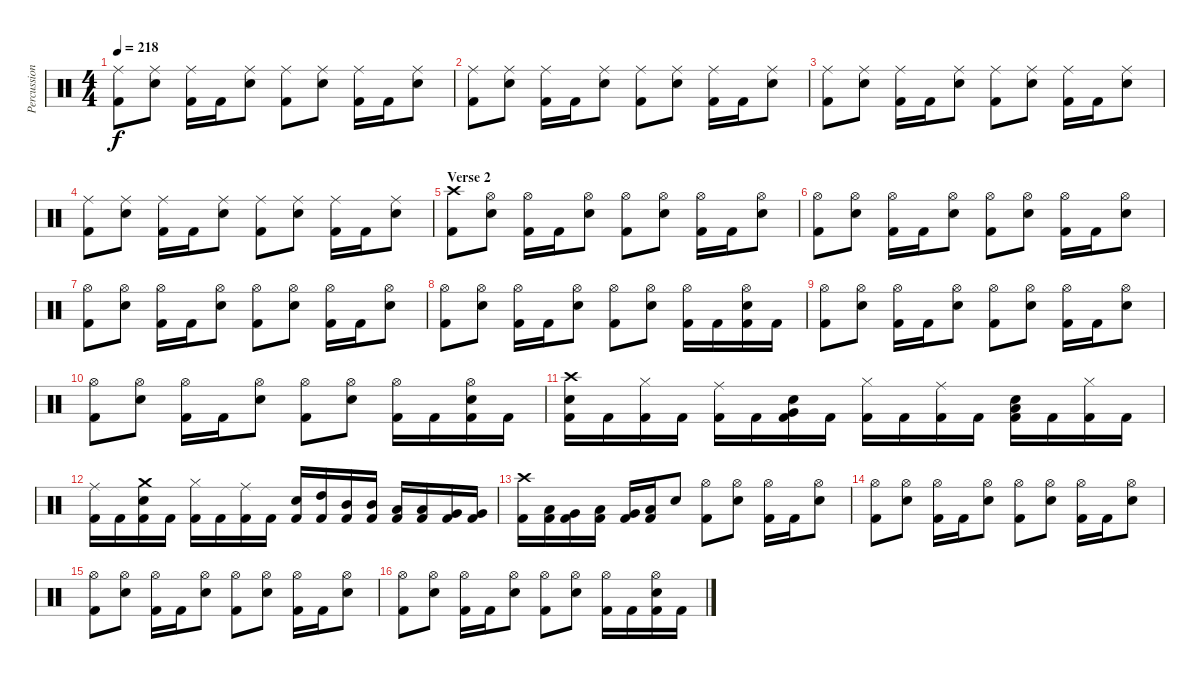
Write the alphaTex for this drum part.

\track ("Percussion" "Percussion") {instrument percussion}
\staff {score}
\articulation defaults
\ts (4 4)
\tempo 218
\clef neutral
\ks c
("Ride (middle)" "Kick (hit) 2").8{dy f} ("Ride (middle)" "Electric Snare (hit)").8 ("Ride (middle)" "Kick (hit) 2").16 "Kick (hit) 2".16 ("Ride (middle)" "Electric Snare (hit)").8 ("Ride (middle)" "Kick (hit) 2").8 ("Ride (middle)" "Electric Snare (hit)").8 ("Ride (middle)" "Kick (hit) 2").16 "Kick (hit) 2".16 ("Ride (middle)" "Electric Snare (hit)").8 |
("Ride (middle)" "Kick (hit) 2").8 ("Ride (middle)" "Electric Snare (hit)").8 ("Ride (middle)" "Kick (hit) 2").16 "Kick (hit) 2".16 ("Ride (middle)" "Electric Snare (hit)").8 ("Ride (middle)" "Kick (hit) 2").8 ("Ride (middle)" "Electric Snare (hit)").8 ("Ride (middle)" "Kick (hit) 2").16 "Kick (hit) 2".16 ("Ride (middle)" "Electric Snare (hit)").8 |
("Ride (middle)" "Kick (hit) 2").8 ("Ride (middle)" "Electric Snare (hit)").8 ("Ride (middle)" "Kick (hit) 2").16 "Kick (hit) 2".16 ("Ride (middle)" "Electric Snare (hit)").8 ("Ride (middle)" "Kick (hit) 2").8 ("Ride (middle)" "Electric Snare (hit)").8 ("Ride (middle)" "Kick (hit) 2").16 "Kick (hit) 2".16 ("Ride (middle)" "Electric Snare (hit)").8 |
("Ride (middle)" "Kick (hit) 2").8 ("Ride (middle)" "Electric Snare (hit)").8 ("Ride (middle)" "Kick (hit) 2").16 "Kick (hit) 2".16 ("Ride (middle)" "Electric Snare (hit)").8 ("Ride (middle)" "Kick (hit) 2").8 ("Ride (middle)" "Electric Snare (hit)").8 ("Ride (middle)" "Kick (hit) 2").16 "Kick (hit) 2".16 ("Ride (middle)" "Electric Snare (hit)").8 |
\section ("" "Verse 2")
("Crash high (hit)" "Kick (hit) 2").8 ("Hi-Hat (open)" "Electric Snare (hit)").8 ("Hi-Hat (open)" "Kick (hit) 2").16 "Kick (hit) 2".16 ("Hi-Hat (open)" "Electric Snare (hit)").8 ("Hi-Hat (open)" "Kick (hit) 2").8 ("Hi-Hat (open)" "Electric Snare (hit)").8 ("Hi-Hat (open)" "Kick (hit) 2").16 "Kick (hit) 2".16 ("Hi-Hat (open)" "Electric Snare (hit)").8 |
("Hi-Hat (open)" "Kick (hit) 2").8 ("Hi-Hat (open)" "Electric Snare (hit)").8 ("Hi-Hat (open)" "Kick (hit) 2").16 "Kick (hit) 2".16 ("Hi-Hat (open)" "Electric Snare (hit)").8 ("Hi-Hat (open)" "Kick (hit) 2").8 ("Hi-Hat (open)" "Electric Snare (hit)").8 ("Hi-Hat (open)" "Kick (hit) 2").16 "Kick (hit) 2".16 ("Hi-Hat (open)" "Electric Snare (hit)").8 |
("Hi-Hat (open)" "Kick (hit) 2").8 ("Hi-Hat (open)" "Electric Snare (hit)").8 ("Hi-Hat (open)" "Kick (hit) 2").16 "Kick (hit) 2".16 ("Hi-Hat (open)" "Electric Snare (hit)").8 ("Hi-Hat (open)" "Kick (hit) 2").8 ("Hi-Hat (open)" "Electric Snare (hit)").8 ("Hi-Hat (open)" "Kick (hit) 2").16 "Kick (hit) 2".16 ("Hi-Hat (open)" "Electric Snare (hit)").8 |
("Hi-Hat (open)" "Kick (hit) 2").8 ("Hi-Hat (open)" "Electric Snare (hit)").8 ("Hi-Hat (open)" "Kick (hit) 2").16 "Kick (hit) 2".16 ("Hi-Hat (open)" "Electric Snare (hit)").8 ("Hi-Hat (open)" "Kick (hit) 2").8 ("Hi-Hat (open)" "Electric Snare (hit)").8 ("Hi-Hat (open)" "Kick (hit) 2").16 "Kick (hit) 2".16 ("Hi-Hat (open)" "Electric Snare (hit)" "Kick (hit) 2").16 "Kick (hit) 2".16 |
("Hi-Hat (open)" "Kick (hit) 2").8 ("Hi-Hat (open)" "Electric Snare (hit)").8 ("Hi-Hat (open)" "Kick (hit) 2").16 "Kick (hit) 2".16 ("Hi-Hat (open)" "Electric Snare (hit)").8 ("Hi-Hat (open)" "Kick (hit) 2").8 ("Hi-Hat (open)" "Electric Snare (hit)").8 ("Hi-Hat (open)" "Kick (hit) 2").16 "Kick (hit) 2".16 ("Hi-Hat (open)" "Electric Snare (hit)").8 |
("Hi-Hat (open)" "Kick (hit) 2").8 ("Hi-Hat (open)" "Electric Snare (hit)").8 ("Hi-Hat (open)" "Kick (hit) 2").16 "Kick (hit) 2".16 ("Hi-Hat (open)" "Electric Snare (hit)").8 ("Hi-Hat (open)" "Kick (hit) 2").8 ("Hi-Hat (open)" "Electric Snare (hit)").8 ("Hi-Hat (open)" "Kick (hit) 2").16 "Kick (hit) 2".16 ("Hi-Hat (open)" "Electric Snare (hit)" "Kick (hit) 2").16 "Kick (hit) 2".16 |
("Crash high (hit)" "Electric Snare (hit)" "Kick (hit) 2").16 "Kick (hit) 2".16 ("Hi-Hat (closed)" "Kick (hit) 2").16 "Kick (hit) 2".16 ("Ride (middle)" "Kick (hit) 2").16 "Kick (hit) 2".16 ("Very Low Tom (hit)" "Electric Snare (hit)" "Kick (hit) 2").16 "Kick (hit) 2".16 ("Hi-Hat (closed)" "Kick (hit) 2").16 "Kick (hit) 2".16 ("Ride (middle)" "Kick (hit) 2").16 "Kick (hit) 2".16 ("Low Tom (hit)" "Electric Snare (hit)" "Kick (hit) 2").16 "Kick (hit) 2".16 ("Hi-Hat (closed)" "Kick (hit) 2").16 "Kick (hit) 2".16 |
("Ride (middle)" "Kick (hit) 2").16 "Kick (hit) 2".16 ("Crash medium (hit)" "Electric Snare (hit)" "Kick (hit) 2").16 "Kick (hit) 2".16 ("Hi-Hat (closed)" "Kick (hit) 2").16 "Kick (hit) 2".16 ("Ride (middle)" "Kick (hit) 2").16 "Kick (hit) 2".16 ("Electric Snare (hit)" "Kick (hit) 2").16 ("High Tom (hit)" "Kick (hit) 2").16 ("Mid Tom (hit)" "Kick (hit) 2").16 ("Mid Tom (hit)" "Kick (hit) 2").16 ("Low Tom (hit)" "Kick (hit) 2").16 ("Low Tom (hit)" "Kick (hit) 2").16 ("Very Low Tom (hit)" "Kick (hit) 2").16 ("Very Low Tom (hit)" "Kick (hit) 2").16 |
("Crash high (hit)" "Kick (hit) 2").16 ("Low Tom (hit)" "Kick (hit) 2").16 ("Very Low Tom (hit)" "Kick (hit) 2").16 ("Low Floor Tom (hit)" "Kick (hit) 2").16 ("Very Low Tom (hit)" "Kick (hit) 2").16 ("Low Tom (hit)" "Kick (hit) 2").16 "Electric Snare (hit)".8 ("Hi-Hat (open)" "Kick (hit) 2").8 ("Hi-Hat (open)" "Electric Snare (hit)").8 ("Hi-Hat (open)" "Kick (hit) 2").16 "Kick (hit) 2".16 ("Hi-Hat (open)" "Electric Snare (hit)").8 |
("Hi-Hat (open)" "Kick (hit) 2").8 ("Hi-Hat (open)" "Electric Snare (hit)").8 ("Hi-Hat (open)" "Kick (hit) 2").16 "Kick (hit) 2".16 ("Hi-Hat (open)" "Electric Snare (hit)").8 ("Hi-Hat (open)" "Kick (hit) 2").8 ("Hi-Hat (open)" "Electric Snare (hit)").8 ("Hi-Hat (open)" "Kick (hit) 2").16 "Kick (hit) 2".16 ("Hi-Hat (open)" "Electric Snare (hit)").8 |
("Hi-Hat (open)" "Kick (hit) 2").8 ("Hi-Hat (open)" "Electric Snare (hit)").8 ("Hi-Hat (open)" "Kick (hit) 2").16 "Kick (hit) 2".16 ("Hi-Hat (open)" "Electric Snare (hit)").8 ("Hi-Hat (open)" "Kick (hit) 2").8 ("Hi-Hat (open)" "Electric Snare (hit)").8 ("Hi-Hat (open)" "Kick (hit) 2").16 "Kick (hit) 2".16 ("Hi-Hat (open)" "Electric Snare (hit)").8 |
("Hi-Hat (open)" "Kick (hit) 2").8 ("Hi-Hat (open)" "Electric Snare (hit)").8 ("Hi-Hat (open)" "Kick (hit) 2").16 "Kick (hit) 2".16 ("Hi-Hat (open)" "Electric Snare (hit)").8 ("Hi-Hat (open)" "Kick (hit) 2").8 ("Hi-Hat (open)" "Electric Snare (hit)").8 ("Hi-Hat (open)" "Kick (hit) 2").16 "Kick (hit) 2".16 ("Hi-Hat (open)" "Electric Snare (hit)" "Kick (hit) 2").16 "Kick (hit) 2".16
